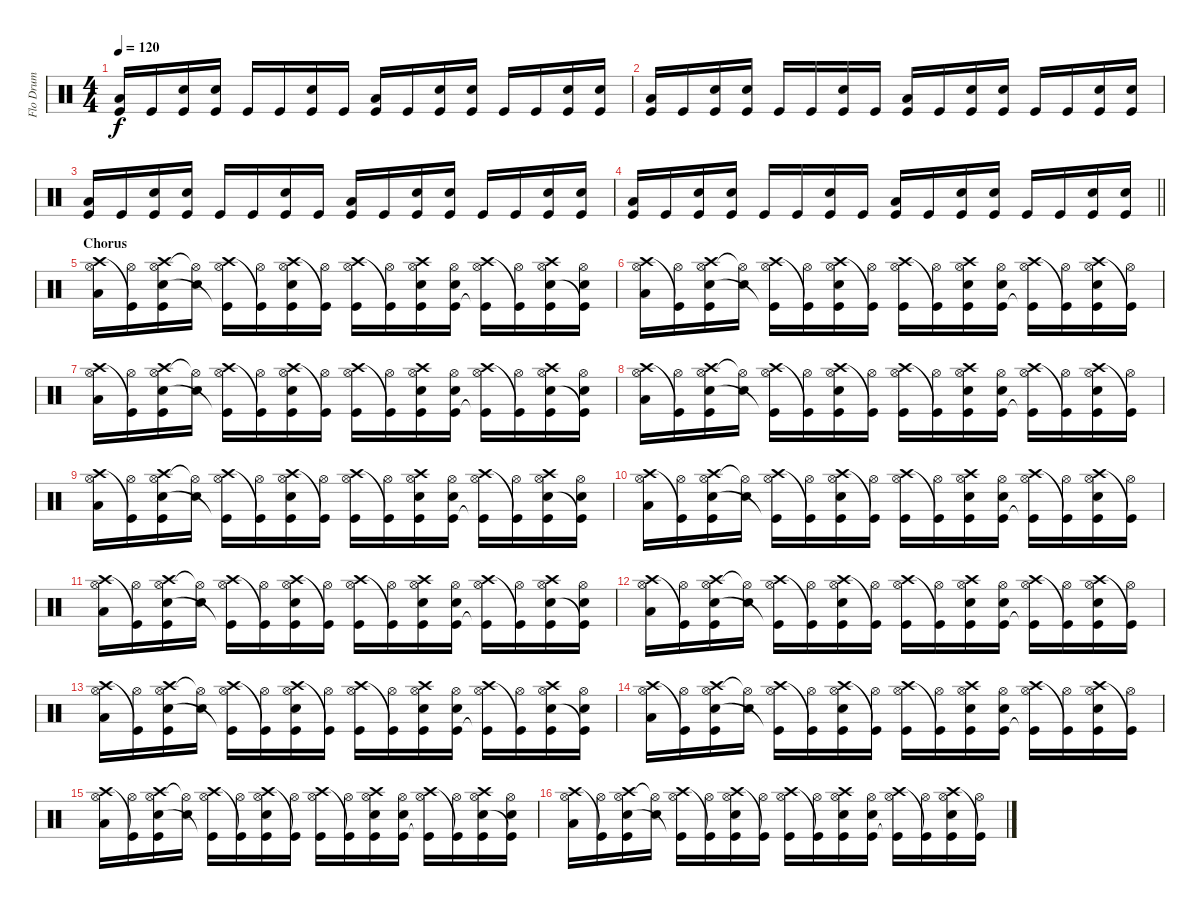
\track ("Flo Drum" "Flo Drum") {instrument percussion}
\staff {score}
\articulation defaults
\ts (4 4)
\tempo 120
\clef neutral
\ks c
("Low Floor Tom (hit)" "Kick (hit)").16{dy f} "Kick (hit)".16 ("Electric Snare (hit)" "Kick (hit)").16 ("Electric Snare (hit)" "Kick (hit)").16 "Kick (hit)".16 "Kick (hit)".16 ("Electric Snare (hit)" "Kick (hit)").16 "Kick (hit)".16 ("Low Floor Tom (hit)" "Kick (hit)").16 "Kick (hit)".16 ("Electric Snare (hit)" "Kick (hit)").16 ("Electric Snare (hit)" "Kick (hit)").16 "Kick (hit)".16 "Kick (hit)".16 ("Electric Snare (hit)" "Kick (hit)").16 ("Electric Snare (hit)" "Kick (hit)").16 |
("Low Floor Tom (hit)" "Kick (hit)").16 "Kick (hit)".16 ("Electric Snare (hit)" "Kick (hit)").16 ("Electric Snare (hit)" "Kick (hit)").16 "Kick (hit)".16 "Kick (hit)".16 ("Electric Snare (hit)" "Kick (hit)").16 "Kick (hit)".16 ("Low Floor Tom (hit)" "Kick (hit)").16 "Kick (hit)".16 ("Electric Snare (hit)" "Kick (hit)").16 ("Electric Snare (hit)" "Kick (hit)").16 "Kick (hit)".16 "Kick (hit)".16 ("Electric Snare (hit)" "Kick (hit)").16 ("Electric Snare (hit)" "Kick (hit)").16 |
("Low Floor Tom (hit)" "Kick (hit)").16 "Kick (hit)".16 ("Electric Snare (hit)" "Kick (hit)").16 ("Electric Snare (hit)" "Kick (hit)").16 "Kick (hit)".16 "Kick (hit)".16 ("Electric Snare (hit)" "Kick (hit)").16 "Kick (hit)".16 ("Low Floor Tom (hit)" "Kick (hit)").16 "Kick (hit)".16 ("Electric Snare (hit)" "Kick (hit)").16 ("Electric Snare (hit)" "Kick (hit)").16 "Kick (hit)".16 "Kick (hit)".16 ("Electric Snare (hit)" "Kick (hit)").16 ("Electric Snare (hit)" "Kick (hit)").16 |
\barLineRight lightlight
("Low Floor Tom (hit)" "Kick (hit)").16 "Kick (hit)".16 ("Electric Snare (hit)" "Kick (hit)").16 ("Electric Snare (hit)" "Kick (hit)").16 "Kick (hit)".16 "Kick (hit)".16 ("Electric Snare (hit)" "Kick (hit)").16 "Kick (hit)".16 ("Low Floor Tom (hit)" "Kick (hit)").16 "Kick (hit)".16 ("Electric Snare (hit)" "Kick (hit)").16 ("Electric Snare (hit)" "Kick (hit)").16 "Kick (hit)".16 "Kick (hit)".16 ("Electric Snare (hit)" "Kick (hit)").16 ("Electric Snare (hit)" "Kick (hit)").16 |
\section ("" "Chorus")
("Hi-Hat (open)" "Crash high (hit)" "Low Floor Tom (hit)").16{volume 12} ("Hi-Hat (open)" "Kick (hit)"{t}).16 ("Hi-Hat (open)" "Crash high (hit)" "Snare (hit) 2" "Kick (hit)").16 ("Hi-Hat (open)"{t} "Snare (hit) 2").16 ("Hi-Hat (open)" "Crash high (hit)" "Kick (hit)"{t}).16 ("Hi-Hat (open)" "Kick (hit)"{t}).16 ("Hi-Hat (open)" "Crash high (hit)" "Snare (hit) 2" "Kick (hit)").16 ("Hi-Hat (open)" "Kick (hit)"{t}).16 ("Hi-Hat (open)" "Crash high (hit)" "Kick (hit)").16 ("Hi-Hat (open)" "Kick (hit)"{t}).16 ("Hi-Hat (open)" "Crash high (hit)" "Snare (hit) 2" "Kick (hit)").16 ("Hi-Hat (open)" "Snare (hit) 2" "Kick (hit)").16 ("Hi-Hat (open)" "Crash high (hit)" "Kick (hit)"{t}).16 ("Hi-Hat (open)" "Kick (hit)"{t}).16 ("Hi-Hat (open)" "Crash high (hit)" "Snare (hit) 2" "Kick (hit)").16 ("Hi-Hat (open)" "Snare (hit) 2" "Kick (hit)"{t}).16 |
("Hi-Hat (open)" "Crash high (hit)" "Low Floor Tom (hit)").16 ("Hi-Hat (open)" "Kick (hit)"{t}).16 ("Hi-Hat (open)" "Crash high (hit)" "Snare (hit) 2" "Kick (hit)").16 ("Hi-Hat (open)"{t} "Snare (hit) 2").16 ("Hi-Hat (open)" "Crash high (hit)" "Kick (hit)"{t}).16 ("Hi-Hat (open)" "Kick (hit)"{t}).16 ("Hi-Hat (open)" "Crash high (hit)" "Snare (hit) 2" "Kick (hit)").16 ("Hi-Hat (open)" "Kick (hit)"{t}).16 ("Hi-Hat (open)" "Crash high (hit)" "Kick (hit)").16 ("Hi-Hat (open)" "Kick (hit)"{t}).16 ("Hi-Hat (open)" "Crash high (hit)" "Snare (hit) 2" "Kick (hit)").16 ("Hi-Hat (open)" "Snare (hit) 2" "Kick (hit)").16 ("Hi-Hat (open)" "Crash high (hit)" "Kick (hit)"{t}).16 ("Hi-Hat (open)" "Kick (hit)"{t}).16 ("Hi-Hat (open)" "Crash high (hit)" "Snare (hit) 2" "Kick (hit)").16 ("Hi-Hat (open)" "Kick (hit)"{t}).16 |
("Hi-Hat (open)" "Crash high (hit)" "Low Floor Tom (hit)").16 ("Hi-Hat (open)" "Kick (hit)"{t}).16 ("Hi-Hat (open)" "Crash high (hit)" "Snare (hit) 2" "Kick (hit)").16 ("Hi-Hat (open)"{t} "Snare (hit) 2").16 ("Hi-Hat (open)" "Crash high (hit)" "Kick (hit)"{t}).16 ("Hi-Hat (open)" "Kick (hit)"{t}).16 ("Hi-Hat (open)" "Crash high (hit)" "Snare (hit) 2" "Kick (hit)").16 ("Hi-Hat (open)" "Kick (hit)"{t}).16 ("Hi-Hat (open)" "Crash high (hit)" "Kick (hit)").16 ("Hi-Hat (open)" "Kick (hit)"{t}).16 ("Hi-Hat (open)" "Crash high (hit)" "Snare (hit) 2" "Kick (hit)").16 ("Hi-Hat (open)" "Snare (hit) 2" "Kick (hit)").16 ("Hi-Hat (open)" "Crash high (hit)" "Kick (hit)"{t}).16 ("Hi-Hat (open)" "Kick (hit)"{t}).16 ("Hi-Hat (open)" "Crash high (hit)" "Snare (hit) 2" "Kick (hit)").16 ("Hi-Hat (open)" "Snare (hit) 2" "Kick (hit)"{t}).16 |
("Hi-Hat (open)" "Crash high (hit)" "Low Floor Tom (hit)").16 ("Hi-Hat (open)" "Kick (hit)"{t}).16 ("Hi-Hat (open)" "Crash high (hit)" "Snare (hit) 2" "Kick (hit)").16 ("Hi-Hat (open)"{t} "Snare (hit) 2").16 ("Hi-Hat (open)" "Crash high (hit)" "Kick (hit)"{t}).16 ("Hi-Hat (open)" "Kick (hit)"{t}).16 ("Hi-Hat (open)" "Crash high (hit)" "Snare (hit) 2" "Kick (hit)").16 ("Hi-Hat (open)" "Kick (hit)"{t}).16 ("Hi-Hat (open)" "Crash high (hit)" "Kick (hit)").16 ("Hi-Hat (open)" "Kick (hit)"{t}).16 ("Hi-Hat (open)" "Crash high (hit)" "Snare (hit) 2" "Kick (hit)").16 ("Hi-Hat (open)" "Snare (hit) 2" "Kick (hit)").16 ("Hi-Hat (open)" "Crash high (hit)" "Kick (hit)"{t}).16 ("Hi-Hat (open)" "Kick (hit)"{t}).16 ("Hi-Hat (open)" "Crash high (hit)" "Snare (hit) 2" "Kick (hit)").16 ("Hi-Hat (open)" "Kick (hit)"{t}).16 |
("Hi-Hat (open)" "Crash high (hit)" "Low Floor Tom (hit)").16{volume 12} ("Hi-Hat (open)" "Kick (hit)"{t}).16 ("Hi-Hat (open)" "Crash high (hit)" "Snare (hit) 2" "Kick (hit)").16 ("Hi-Hat (open)"{t} "Snare (hit) 2").16 ("Hi-Hat (open)" "Crash high (hit)" "Kick (hit)"{t}).16 ("Hi-Hat (open)" "Kick (hit)"{t}).16 ("Hi-Hat (open)" "Crash high (hit)" "Snare (hit) 2" "Kick (hit)").16 ("Hi-Hat (open)" "Kick (hit)"{t}).16 ("Hi-Hat (open)" "Crash high (hit)" "Kick (hit)").16 ("Hi-Hat (open)" "Kick (hit)"{t}).16 ("Hi-Hat (open)" "Crash high (hit)" "Snare (hit) 2" "Kick (hit)").16 ("Hi-Hat (open)" "Snare (hit) 2" "Kick (hit)").16 ("Hi-Hat (open)" "Crash high (hit)" "Kick (hit)"{t}).16 ("Hi-Hat (open)" "Kick (hit)"{t}).16 ("Hi-Hat (open)" "Crash high (hit)" "Snare (hit) 2" "Kick (hit)").16 ("Hi-Hat (open)" "Snare (hit) 2" "Kick (hit)"{t}).16 |
("Hi-Hat (open)" "Crash high (hit)" "Low Floor Tom (hit)").16 ("Hi-Hat (open)" "Kick (hit)"{t}).16 ("Hi-Hat (open)" "Crash high (hit)" "Snare (hit) 2" "Kick (hit)").16 ("Hi-Hat (open)"{t} "Snare (hit) 2").16 ("Hi-Hat (open)" "Crash high (hit)" "Kick (hit)"{t}).16 ("Hi-Hat (open)" "Kick (hit)"{t}).16 ("Hi-Hat (open)" "Crash high (hit)" "Snare (hit) 2" "Kick (hit)").16 ("Hi-Hat (open)" "Kick (hit)"{t}).16 ("Hi-Hat (open)" "Crash high (hit)" "Kick (hit)").16 ("Hi-Hat (open)" "Kick (hit)"{t}).16 ("Hi-Hat (open)" "Crash high (hit)" "Snare (hit) 2" "Kick (hit)").16 ("Hi-Hat (open)" "Snare (hit) 2" "Kick (hit)").16 ("Hi-Hat (open)" "Crash high (hit)" "Kick (hit)"{t}).16 ("Hi-Hat (open)" "Kick (hit)"{t}).16 ("Hi-Hat (open)" "Crash high (hit)" "Snare (hit) 2" "Kick (hit)").16 ("Hi-Hat (open)" "Kick (hit)"{t}).16 |
("Hi-Hat (open)" "Crash high (hit)" "Low Floor Tom (hit)").16 ("Hi-Hat (open)" "Kick (hit)"{t}).16 ("Hi-Hat (open)" "Crash high (hit)" "Snare (hit) 2" "Kick (hit)").16 ("Hi-Hat (open)"{t} "Snare (hit) 2").16 ("Hi-Hat (open)" "Crash high (hit)" "Kick (hit)"{t}).16 ("Hi-Hat (open)" "Kick (hit)"{t}).16 ("Hi-Hat (open)" "Crash high (hit)" "Snare (hit) 2" "Kick (hit)").16 ("Hi-Hat (open)" "Kick (hit)"{t}).16 ("Hi-Hat (open)" "Crash high (hit)" "Kick (hit)").16 ("Hi-Hat (open)" "Kick (hit)"{t}).16 ("Hi-Hat (open)" "Crash high (hit)" "Snare (hit) 2" "Kick (hit)").16 ("Hi-Hat (open)" "Snare (hit) 2" "Kick (hit)").16 ("Hi-Hat (open)" "Crash high (hit)" "Kick (hit)"{t}).16 ("Hi-Hat (open)" "Kick (hit)"{t}).16 ("Hi-Hat (open)" "Crash high (hit)" "Snare (hit) 2" "Kick (hit)").16 ("Hi-Hat (open)" "Snare (hit) 2" "Kick (hit)"{t}).16 |
("Hi-Hat (open)" "Crash high (hit)" "Low Floor Tom (hit)").16 ("Hi-Hat (open)" "Kick (hit)"{t}).16 ("Hi-Hat (open)" "Crash high (hit)" "Snare (hit) 2" "Kick (hit)").16 ("Hi-Hat (open)"{t} "Snare (hit) 2").16 ("Hi-Hat (open)" "Crash high (hit)" "Kick (hit)"{t}).16 ("Hi-Hat (open)" "Kick (hit)"{t}).16 ("Hi-Hat (open)" "Crash high (hit)" "Snare (hit) 2" "Kick (hit)").16 ("Hi-Hat (open)" "Kick (hit)"{t}).16 ("Hi-Hat (open)" "Crash high (hit)" "Kick (hit)").16 ("Hi-Hat (open)" "Kick (hit)"{t}).16 ("Hi-Hat (open)" "Crash high (hit)" "Snare (hit) 2" "Kick (hit)").16 ("Hi-Hat (open)" "Snare (hit) 2" "Kick (hit)").16 ("Hi-Hat (open)" "Crash high (hit)" "Kick (hit)"{t}).16 ("Hi-Hat (open)" "Kick (hit)"{t}).16 ("Hi-Hat (open)" "Crash high (hit)" "Snare (hit) 2" "Kick (hit)").16 ("Hi-Hat (open)" "Kick (hit)"{t}).16 |
("Hi-Hat (open)" "Crash high (hit)" "Low Floor Tom (hit)").16{volume 12} ("Hi-Hat (open)" "Kick (hit)"{t}).16 ("Hi-Hat (open)" "Crash high (hit)" "Snare (hit) 2" "Kick (hit)").16 ("Hi-Hat (open)"{t} "Snare (hit) 2").16 ("Hi-Hat (open)" "Crash high (hit)" "Kick (hit)"{t}).16 ("Hi-Hat (open)" "Kick (hit)"{t}).16 ("Hi-Hat (open)" "Crash high (hit)" "Snare (hit) 2" "Kick (hit)").16 ("Hi-Hat (open)" "Kick (hit)"{t}).16 ("Hi-Hat (open)" "Crash high (hit)" "Kick (hit)").16 ("Hi-Hat (open)" "Kick (hit)"{t}).16 ("Hi-Hat (open)" "Crash high (hit)" "Snare (hit) 2" "Kick (hit)").16 ("Hi-Hat (open)" "Snare (hit) 2" "Kick (hit)").16 ("Hi-Hat (open)" "Crash high (hit)" "Kick (hit)"{t}).16 ("Hi-Hat (open)" "Kick (hit)"{t}).16 ("Hi-Hat (open)" "Crash high (hit)" "Snare (hit) 2" "Kick (hit)").16 ("Hi-Hat (open)" "Snare (hit) 2" "Kick (hit)"{t}).16 |
("Hi-Hat (open)" "Crash high (hit)" "Low Floor Tom (hit)").16 ("Hi-Hat (open)" "Kick (hit)"{t}).16 ("Hi-Hat (open)" "Crash high (hit)" "Snare (hit) 2" "Kick (hit)").16 ("Hi-Hat (open)"{t} "Snare (hit) 2").16 ("Hi-Hat (open)" "Crash high (hit)" "Kick (hit)"{t}).16 ("Hi-Hat (open)" "Kick (hit)"{t}).16 ("Hi-Hat (open)" "Crash high (hit)" "Snare (hit) 2" "Kick (hit)").16 ("Hi-Hat (open)" "Kick (hit)"{t}).16 ("Hi-Hat (open)" "Crash high (hit)" "Kick (hit)").16 ("Hi-Hat (open)" "Kick (hit)"{t}).16 ("Hi-Hat (open)" "Crash high (hit)" "Snare (hit) 2" "Kick (hit)").16 ("Hi-Hat (open)" "Snare (hit) 2" "Kick (hit)").16 ("Hi-Hat (open)" "Crash high (hit)" "Kick (hit)"{t}).16 ("Hi-Hat (open)" "Kick (hit)"{t}).16 ("Hi-Hat (open)" "Crash high (hit)" "Snare (hit) 2" "Kick (hit)").16 ("Hi-Hat (open)" "Kick (hit)"{t}).16 |
("Hi-Hat (open)" "Crash high (hit)" "Low Floor Tom (hit)").16 ("Hi-Hat (open)" "Kick (hit)"{t}).16 ("Hi-Hat (open)" "Crash high (hit)" "Snare (hit) 2" "Kick (hit)").16 ("Hi-Hat (open)"{t} "Snare (hit) 2").16 ("Hi-Hat (open)" "Crash high (hit)" "Kick (hit)"{t}).16 ("Hi-Hat (open)" "Kick (hit)"{t}).16 ("Hi-Hat (open)" "Crash high (hit)" "Snare (hit) 2" "Kick (hit)").16 ("Hi-Hat (open)" "Kick (hit)"{t}).16 ("Hi-Hat (open)" "Crash high (hit)" "Kick (hit)").16 ("Hi-Hat (open)" "Kick (hit)"{t}).16 ("Hi-Hat (open)" "Crash high (hit)" "Snare (hit) 2" "Kick (hit)").16 ("Hi-Hat (open)" "Snare (hit) 2" "Kick (hit)").16 ("Hi-Hat (open)" "Crash high (hit)" "Kick (hit)"{t}).16 ("Hi-Hat (open)" "Kick (hit)"{t}).16 ("Hi-Hat (open)" "Crash high (hit)" "Snare (hit) 2" "Kick (hit)").16 ("Hi-Hat (open)" "Snare (hit) 2" "Kick (hit)"{t}).16 |
("Hi-Hat (open)" "Crash high (hit)" "Low Floor Tom (hit)").16 ("Hi-Hat (open)" "Kick (hit)"{t}).16 ("Hi-Hat (open)" "Crash high (hit)" "Snare (hit) 2" "Kick (hit)").16 ("Hi-Hat (open)"{t} "Snare (hit) 2").16 ("Hi-Hat (open)" "Crash high (hit)" "Kick (hit)"{t}).16 ("Hi-Hat (open)" "Kick (hit)"{t}).16 ("Hi-Hat (open)" "Crash high (hit)" "Snare (hit) 2" "Kick (hit)").16 ("Hi-Hat (open)" "Kick (hit)"{t}).16 ("Hi-Hat (open)" "Crash high (hit)" "Kick (hit)").16 ("Hi-Hat (open)" "Kick (hit)"{t}).16 ("Hi-Hat (open)" "Crash high (hit)" "Snare (hit) 2" "Kick (hit)").16 ("Hi-Hat (open)" "Snare (hit) 2" "Kick (hit)").16 ("Hi-Hat (open)" "Crash high (hit)" "Kick (hit)"{t}).16 ("Hi-Hat (open)" "Kick (hit)"{t}).16 ("Hi-Hat (open)" "Crash high (hit)" "Snare (hit) 2" "Kick (hit)").16 ("Hi-Hat (open)" "Kick (hit)"{t}).16
